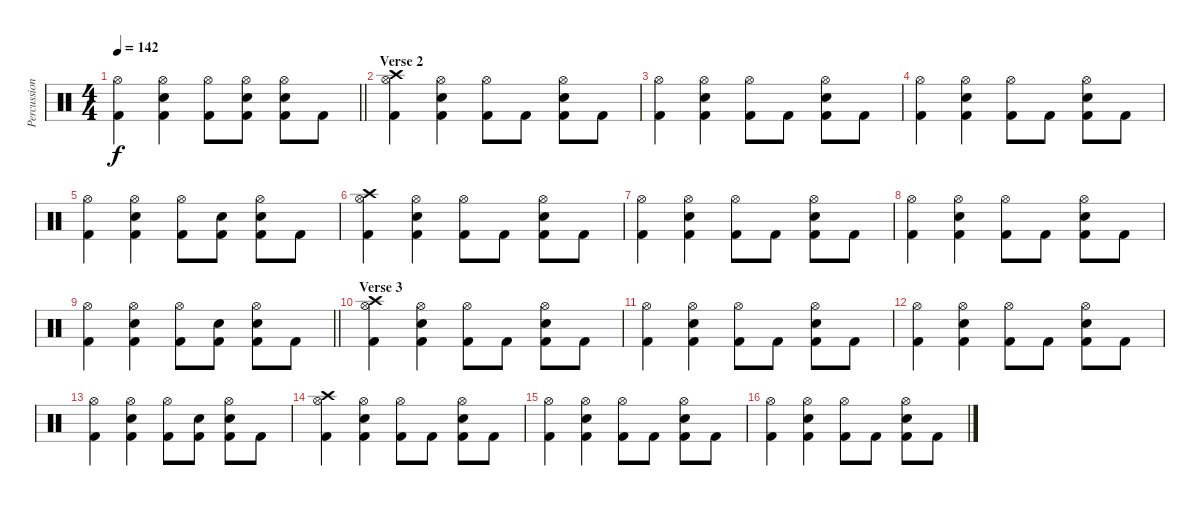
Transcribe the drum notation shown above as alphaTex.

\track ("Percussion" "Percussion") {instrument percussion}
\staff {score}
\articulation defaults
\ts (4 4)
\tempo 142
\clef neutral
\barLineRight lightlight
\ks c
("Hi-Hat (open)" "Kick (hit) 2").4{dy f} ("Hi-Hat (open)" "Snare (hit) 2" "Kick (hit) 2").4 ("Hi-Hat (open)" "Kick (hit) 2").8 ("Hi-Hat (open)" "Snare (hit) 2" "Kick (hit) 2").8 ("Hi-Hat (open)" "Snare (hit) 2" "Kick (hit) 2").8 "Kick (hit) 2".8 |
\section ("" "Verse 2")
("Crash high (hit)" "Hi-Hat (open)" "Kick (hit) 2").4 ("Hi-Hat (open)" "Snare (hit) 2" "Kick (hit) 2").4 ("Hi-Hat (open)" "Kick (hit) 2").8 "Kick (hit) 2".8 ("Hi-Hat (open)" "Snare (hit) 2" "Kick (hit) 2").8 "Kick (hit) 2".8 |
("Hi-Hat (open)" "Kick (hit) 2").4 ("Hi-Hat (open)" "Snare (hit) 2" "Kick (hit) 2").4 ("Hi-Hat (open)" "Kick (hit) 2").8 "Kick (hit) 2".8 ("Hi-Hat (open)" "Snare (hit) 2" "Kick (hit) 2").8 "Kick (hit) 2".8 |
("Hi-Hat (open)" "Kick (hit) 2").4 ("Hi-Hat (open)" "Snare (hit) 2" "Kick (hit) 2").4 ("Hi-Hat (open)" "Kick (hit) 2").8 "Kick (hit) 2".8 ("Hi-Hat (open)" "Snare (hit) 2" "Kick (hit) 2").8 "Kick (hit) 2".8 |
("Hi-Hat (open)" "Kick (hit) 2").4 ("Hi-Hat (open)" "Snare (hit) 2" "Kick (hit) 2").4 ("Hi-Hat (open)" "Kick (hit) 2").8 ("Snare (hit) 2" "Kick (hit) 2").8 ("Hi-Hat (open)" "Snare (hit) 2" "Kick (hit) 2").8 "Kick (hit) 2".8 |
("Crash high (hit)" "Hi-Hat (open)" "Kick (hit) 2").4 ("Hi-Hat (open)" "Snare (hit) 2" "Kick (hit) 2").4 ("Hi-Hat (open)" "Kick (hit) 2").8 "Kick (hit) 2".8 ("Hi-Hat (open)" "Snare (hit) 2" "Kick (hit) 2").8 "Kick (hit) 2".8 |
("Hi-Hat (open)" "Kick (hit) 2").4 ("Hi-Hat (open)" "Snare (hit) 2" "Kick (hit) 2").4 ("Hi-Hat (open)" "Kick (hit) 2").8 "Kick (hit) 2".8 ("Hi-Hat (open)" "Snare (hit) 2" "Kick (hit) 2").8 "Kick (hit) 2".8 |
("Hi-Hat (open)" "Kick (hit) 2").4 ("Hi-Hat (open)" "Snare (hit) 2" "Kick (hit) 2").4 ("Hi-Hat (open)" "Kick (hit) 2").8 "Kick (hit) 2".8 ("Hi-Hat (open)" "Snare (hit) 2" "Kick (hit) 2").8 "Kick (hit) 2".8 |
\barLineRight lightlight
("Hi-Hat (open)" "Kick (hit) 2").4 ("Hi-Hat (open)" "Snare (hit) 2" "Kick (hit) 2").4 ("Hi-Hat (open)" "Kick (hit) 2").8 ("Snare (hit) 2" "Kick (hit) 2").8 ("Hi-Hat (open)" "Snare (hit) 2" "Kick (hit) 2").8 "Kick (hit) 2".8 |
\section ("" "Verse 3")
("Crash high (hit)" "Hi-Hat (open)" "Kick (hit) 2").4 ("Hi-Hat (open)" "Snare (hit) 2" "Kick (hit) 2").4 ("Hi-Hat (open)" "Kick (hit) 2").8 "Kick (hit) 2".8 ("Hi-Hat (open)" "Snare (hit) 2" "Kick (hit) 2").8 "Kick (hit) 2".8 |
("Hi-Hat (open)" "Kick (hit) 2").4 ("Hi-Hat (open)" "Snare (hit) 2" "Kick (hit) 2").4 ("Hi-Hat (open)" "Kick (hit) 2").8 "Kick (hit) 2".8 ("Hi-Hat (open)" "Snare (hit) 2" "Kick (hit) 2").8 "Kick (hit) 2".8 |
("Hi-Hat (open)" "Kick (hit) 2").4 ("Hi-Hat (open)" "Snare (hit) 2" "Kick (hit) 2").4 ("Hi-Hat (open)" "Kick (hit) 2").8 "Kick (hit) 2".8 ("Hi-Hat (open)" "Snare (hit) 2" "Kick (hit) 2").8 "Kick (hit) 2".8 |
("Hi-Hat (open)" "Kick (hit) 2").4 ("Hi-Hat (open)" "Snare (hit) 2" "Kick (hit) 2").4 ("Hi-Hat (open)" "Kick (hit) 2").8 ("Snare (hit) 2" "Kick (hit) 2").8 ("Hi-Hat (open)" "Snare (hit) 2" "Kick (hit) 2").8 "Kick (hit) 2".8 |
("Crash high (hit)" "Hi-Hat (open)" "Kick (hit) 2").4 ("Hi-Hat (open)" "Snare (hit) 2" "Kick (hit) 2").4 ("Hi-Hat (open)" "Kick (hit) 2").8 "Kick (hit) 2".8 ("Hi-Hat (open)" "Snare (hit) 2" "Kick (hit) 2").8 "Kick (hit) 2".8 |
("Hi-Hat (open)" "Kick (hit) 2").4 ("Hi-Hat (open)" "Snare (hit) 2" "Kick (hit) 2").4 ("Hi-Hat (open)" "Kick (hit) 2").8 "Kick (hit) 2".8 ("Hi-Hat (open)" "Snare (hit) 2" "Kick (hit) 2").8 "Kick (hit) 2".8 |
("Hi-Hat (open)" "Kick (hit) 2").4 ("Hi-Hat (open)" "Snare (hit) 2" "Kick (hit) 2").4 ("Hi-Hat (open)" "Kick (hit) 2").8 "Kick (hit) 2".8 ("Hi-Hat (open)" "Snare (hit) 2" "Kick (hit) 2").8 "Kick (hit) 2".8
